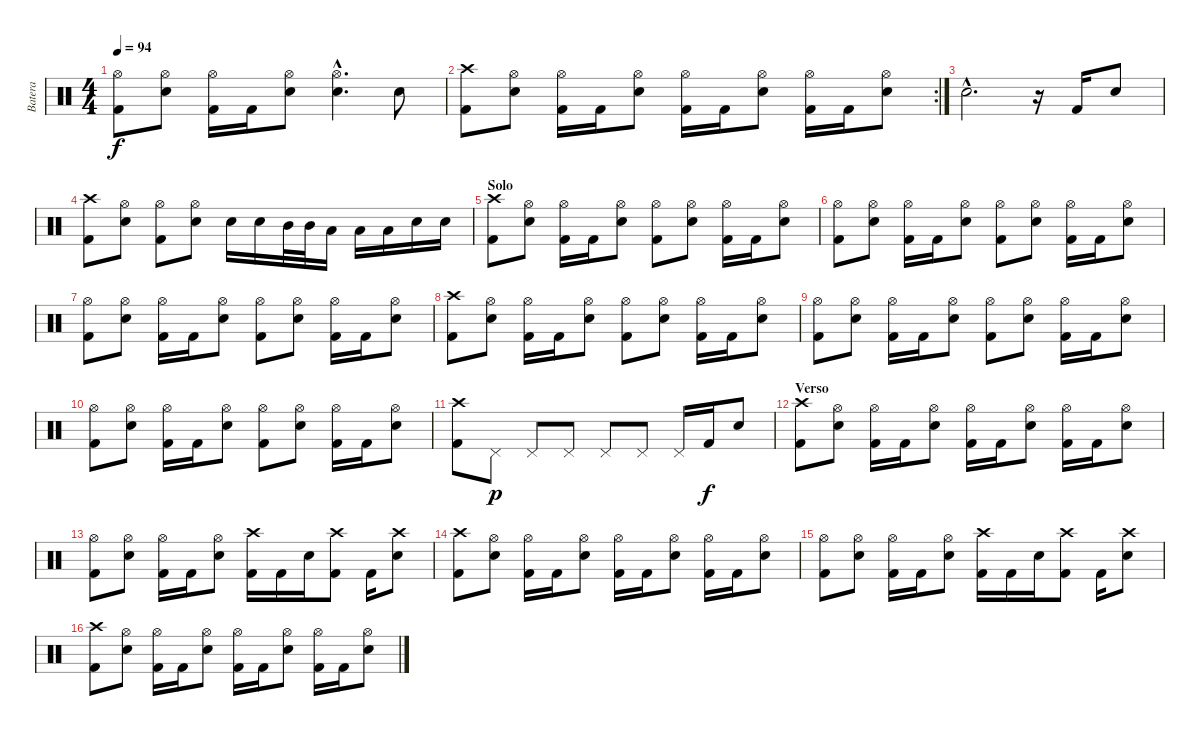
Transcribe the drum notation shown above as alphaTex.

\track ("Batera" "Batera") {instrument percussion}
\staff {score}
\articulation defaults
\ts (4 4)
\tempo 94
\clef neutral
\ks c
("Hi-Hat (open)" "Kick (hit) 2").8{dy f} ("Hi-Hat (open)" "Snare (hit) 2").8 ("Hi-Hat (open)" "Kick (hit) 2").16 "Kick (hit) 2".16 ("Hi-Hat (open)" "Snare (hit) 2").8 ("Hi-Hat (open)"{hac} "Snare (hit) 2"{hac}).4{d} "Snare (hit) 2".8 |
\rc 2
("Crash high (hit)" "Kick (hit) 2").8 ("Hi-Hat (open)" "Snare (hit) 2").8 ("Hi-Hat (open)" "Kick (hit) 2").16 "Kick (hit) 2".16 ("Hi-Hat (open)" "Snare (hit) 2").8 ("Hi-Hat (open)" "Kick (hit) 2").16 "Kick (hit) 2".16 ("Hi-Hat (open)" "Snare (hit) 2").8 ("Hi-Hat (open)" "Kick (hit) 2").16 "Kick (hit) 2".16 ("Hi-Hat (open)" "Snare (hit) 2").8 |
"Snare (hit) 2"{hac}.2{d} r.16 "Kick (hit) 2".16 "Snare (hit) 2".8 |
("Crash high (hit)" "Kick (hit) 2").8 ("Hi-Hat (open)" "Snare (hit) 2").8 ("Hi-Hat (open)" "Kick (hit) 2").8 ("Hi-Hat (open)" "Snare (hit) 2").8 "Snare (hit) 2".16 "Snare (hit) 2".16 "Mid Tom (hit)".32 "Mid Tom (hit)".32 "Low Tom (hit)".16 "Low Tom (hit)".16 "Low Tom (hit)".16 "Snare (hit) 2".16 "Snare (hit) 2".16 |
\section ("" "Solo")
("Crash high (hit)" "Kick (hit) 2").8 ("Hi-Hat (open)" "Snare (hit) 2").8 ("Hi-Hat (open)" "Kick (hit) 2").16 "Kick (hit) 2".16 ("Hi-Hat (open)" "Snare (hit) 2").8 ("Hi-Hat (open)" "Kick (hit) 2").8 ("Hi-Hat (open)" "Snare (hit) 2").8 ("Hi-Hat (open)" "Kick (hit) 2").16 "Kick (hit) 2".16 ("Hi-Hat (open)" "Snare (hit) 2").8 |
("Hi-Hat (open)" "Kick (hit) 2").8 ("Hi-Hat (open)" "Snare (hit) 2").8 ("Hi-Hat (open)" "Kick (hit) 2").16 "Kick (hit) 2".16 ("Hi-Hat (open)" "Snare (hit) 2").8 ("Hi-Hat (open)" "Kick (hit) 2").8 ("Hi-Hat (open)" "Snare (hit) 2").8 ("Hi-Hat (open)" "Kick (hit) 2").16 "Kick (hit) 2".16 ("Hi-Hat (open)" "Snare (hit) 2").8 |
("Hi-Hat (open)" "Kick (hit) 2").8 ("Hi-Hat (open)" "Snare (hit) 2").8 ("Hi-Hat (open)" "Kick (hit) 2").16 "Kick (hit) 2".16 ("Hi-Hat (open)" "Snare (hit) 2").8 ("Hi-Hat (open)" "Kick (hit) 2").8 ("Hi-Hat (open)" "Snare (hit) 2").8 ("Hi-Hat (open)" "Kick (hit) 2").16 "Kick (hit) 2".16 ("Hi-Hat (open)" "Snare (hit) 2").8 |
("Crash high (hit)" "Kick (hit) 2").8 ("Hi-Hat (open)" "Snare (hit) 2").8 ("Hi-Hat (open)" "Kick (hit) 2").16 "Kick (hit) 2".16 ("Hi-Hat (open)" "Snare (hit) 2").8 ("Hi-Hat (open)" "Kick (hit) 2").8 ("Hi-Hat (open)" "Snare (hit) 2").8 ("Hi-Hat (open)" "Kick (hit) 2").16 "Kick (hit) 2".16 ("Hi-Hat (open)" "Snare (hit) 2").8 |
("Hi-Hat (open)" "Kick (hit) 2").8 ("Hi-Hat (open)" "Snare (hit) 2").8 ("Hi-Hat (open)" "Kick (hit) 2").16 "Kick (hit) 2".16 ("Hi-Hat (open)" "Snare (hit) 2").8 ("Hi-Hat (open)" "Kick (hit) 2").8 ("Hi-Hat (open)" "Snare (hit) 2").8 ("Hi-Hat (open)" "Kick (hit) 2").16 "Kick (hit) 2".16 ("Hi-Hat (open)" "Snare (hit) 2").8 |
("Hi-Hat (open)" "Kick (hit) 2").8 ("Hi-Hat (open)" "Snare (hit) 2").8 ("Hi-Hat (open)" "Kick (hit) 2").16 "Kick (hit) 2".16 ("Hi-Hat (open)" "Snare (hit) 2").8 ("Hi-Hat (open)" "Kick (hit) 2").8 ("Hi-Hat (open)" "Snare (hit) 2").8 ("Hi-Hat (open)" "Kick (hit) 2").16 "Kick (hit) 2".16 ("Hi-Hat (open)" "Snare (hit) 2").8 |
("Crash high (hit)" "Kick (hit) 2").8 "Pedal Hi-Hat (hit)".8{dy p} "Pedal Hi-Hat (hit)".8 "Pedal Hi-Hat (hit)".8 "Pedal Hi-Hat (hit)".8 "Pedal Hi-Hat (hit)".8 "Pedal Hi-Hat (hit)".16 "Kick (hit) 2".16{dy f} "Snare (hit) 2".8 |
\section ("" "Verso")
("Crash high (hit)" "Kick (hit) 2").8 ("Hi-Hat (open)" "Snare (hit) 2").8 ("Hi-Hat (open)" "Kick (hit) 2").16 "Kick (hit) 2".16 ("Hi-Hat (open)" "Snare (hit) 2").8 ("Hi-Hat (open)" "Kick (hit) 2").16 "Kick (hit) 2".16 ("Hi-Hat (open)" "Snare (hit) 2").8 ("Hi-Hat (open)" "Kick (hit) 2").16 "Kick (hit) 2".16 ("Hi-Hat (open)" "Snare (hit) 2").8 |
("Hi-Hat (open)" "Kick (hit) 2").8 ("Hi-Hat (open)" "Snare (hit) 2").8 ("Hi-Hat (open)" "Kick (hit) 2").16 "Kick (hit) 2".16 ("Hi-Hat (open)" "Snare (hit) 2").8 ("Crash high (hit)" "Kick (hit) 2").16 "Kick (hit) 2".16 "Snare (hit) 2".16 ("Crash high (hit)" "Kick (hit) 2").8 "Kick (hit) 2".16 ("Crash high (hit)" "Snare (hit) 2").8 |
("Crash high (hit)" "Kick (hit) 2").8 ("Hi-Hat (open)" "Snare (hit) 2").8 ("Hi-Hat (open)" "Kick (hit) 2").16 "Kick (hit) 2".16 ("Hi-Hat (open)" "Snare (hit) 2").8 ("Hi-Hat (open)" "Kick (hit) 2").16 "Kick (hit) 2".16 ("Hi-Hat (open)" "Snare (hit) 2").8 ("Hi-Hat (open)" "Kick (hit) 2").16 "Kick (hit) 2".16 ("Hi-Hat (open)" "Snare (hit) 2").8 |
("Hi-Hat (open)" "Kick (hit) 2").8 ("Hi-Hat (open)" "Snare (hit) 2").8 ("Hi-Hat (open)" "Kick (hit) 2").16 "Kick (hit) 2".16 ("Hi-Hat (open)" "Snare (hit) 2").8 ("Crash high (hit)" "Kick (hit) 2").16 "Kick (hit) 2".16 "Snare (hit) 2".16 ("Crash high (hit)" "Kick (hit) 2").8 "Kick (hit) 2".16 ("Crash high (hit)" "Snare (hit) 2").8 |
("Crash high (hit)" "Kick (hit) 2").8 ("Hi-Hat (open)" "Snare (hit) 2").8 ("Hi-Hat (open)" "Kick (hit) 2").16 "Kick (hit) 2".16 ("Hi-Hat (open)" "Snare (hit) 2").8 ("Hi-Hat (open)" "Kick (hit) 2").16 "Kick (hit) 2".16 ("Hi-Hat (open)" "Snare (hit) 2").8 ("Hi-Hat (open)" "Kick (hit) 2").16 "Kick (hit) 2".16 ("Hi-Hat (open)" "Snare (hit) 2").8
